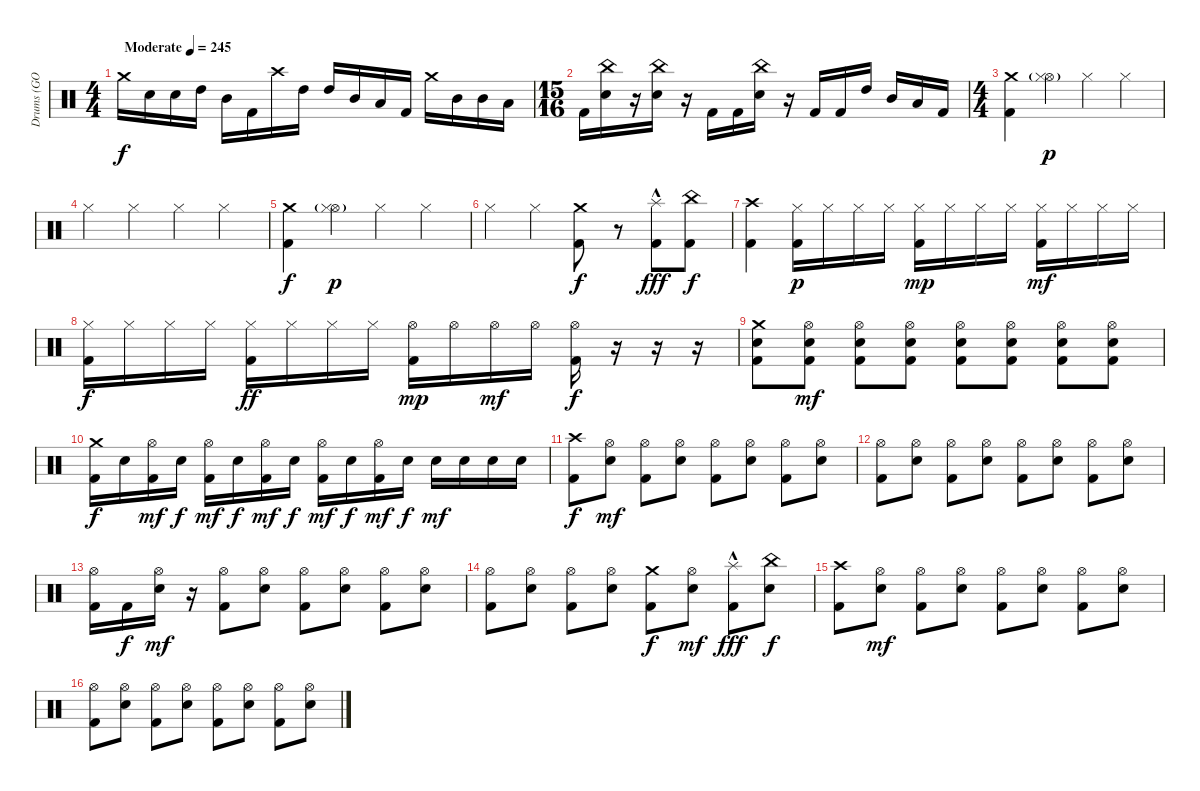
\track ("Drums (GO DIRK)" "Drums (GO ") {instrument percussion}
\staff {score}
\articulation defaults
\ts (4 4)
\tempo (245 "Moderate")
\clef neutral
\ks c "Crash medium (hit)".16{dy f} "Electric Snare (hit)".16 "Electric Snare (hit)".16 "High Tom (hit)".16 "Mid Tom (hit)".16 "Kick (hit) 2".16 "Crash high (hit)".16 "High Tom (hit)".16 "High Tom (hit)".16 "Mid Tom (hit)".16 "Low Tom (hit)".16 "Kick (hit) 2".16 "Crash medium (hit)".16 "Mid Tom (hit)".16 "Mid Tom (hit)".16 "Low Tom (hit)".16
|
\ts (15 16)
"Kick (hit) 2".16 ("China (hit)" "Electric Snare (hit)").16 r.16 ("China (hit)" "Electric Snare (hit)").16 r.16 "Kick (hit) 2".16 "Kick (hit) 2".16 ("China (hit)" "Electric Snare (hit)").16 r.16 "Kick (hit) 2".16 "Kick (hit) 2".16 "High Tom (hit)".16 "Mid Tom (hit)".16 "Low Tom (hit)".16 "Kick (hit) 2".16 |
\ts (4 4)
("Crash medium (hit)" "Kick (hit) 2").4 ("Hi-Hat (open)"{g} "Hi-Hat (closed)").4{dy p} "Hi-Hat (closed)".4 "Hi-Hat (closed)".4 |
"Hi-Hat (closed)".4 "Hi-Hat (closed)".4 "Hi-Hat (closed)".4 "Hi-Hat (closed)".4 |
("Crash medium (hit)" "Kick (hit) 2").4{dy f} ("Hi-Hat (open)"{g} "Hi-Hat (closed)").4{dy p} "Hi-Hat (closed)".4 "Hi-Hat (closed)".4 |
"Hi-Hat (closed)".4 "Hi-Hat (closed)".4 ("Crash medium (hit)" "Kick (hit) 2").8{dy f} r.8 ("Splash (hit)"{hac} "Kick (hit) 2").8{dy fff} ("China (hit)" "Kick (hit) 2").8{dy f} |
("Crash high (hit)" "Kick (hit) 2").4 ("Hi-Hat (closed)" "Kick (hit) 2").16{dy p} "Hi-Hat (closed)".16 "Hi-Hat (closed)".16 "Hi-Hat (closed)".16 ("Hi-Hat (closed)" "Kick (hit) 2").16{dy mp} "Hi-Hat (closed)".16 "Hi-Hat (closed)".16 "Hi-Hat (closed)".16 ("Hi-Hat (closed)" "Kick (hit) 2").16{dy mf} "Hi-Hat (closed)".16 "Hi-Hat (closed)".16 "Hi-Hat (closed)".16 |
("Hi-Hat (closed)" "Kick (hit) 2").16{dy f} "Hi-Hat (closed)".16 "Hi-Hat (closed)".16 "Hi-Hat (closed)".16 ("Hi-Hat (closed)" "Kick (hit) 2").16{dy ff} "Hi-Hat (closed)".16 "Hi-Hat (closed)".16 "Hi-Hat (closed)".16 ("Hi-Hat (open)" "Kick (hit) 2").16{dy mp} "Hi-Hat (open)".16 "Hi-Hat (open)".16{dy mf} "Hi-Hat (open)".16 ("Hi-Hat (open)" "Kick (hit) 2").16{dy f} r.16 r.16 r.16 |
("Crash medium (hit)" "Electric Snare (hit)" "Kick (hit) 2").8 ("Hi-Hat (open)" "Electric Snare (hit)" "Kick (hit) 2").8{dy mf} ("Hi-Hat (open)" "Electric Snare (hit)" "Kick (hit) 2").8 ("Hi-Hat (open)" "Electric Snare (hit)" "Kick (hit) 2").8 ("Hi-Hat (open)" "Electric Snare (hit)" "Kick (hit) 2").8 ("Hi-Hat (open)" "Electric Snare (hit)" "Kick (hit) 2").8 ("Hi-Hat (open)" "Electric Snare (hit)" "Kick (hit) 2").8 ("Hi-Hat (open)" "Electric Snare (hit)" "Kick (hit) 2").8 |
("Crash medium (hit)" "Kick (hit) 2").16{dy f} "Electric Snare (hit)".16 ("Hi-Hat (open)" "Kick (hit) 2").16{dy mf} "Electric Snare (hit)".16{dy f} ("Hi-Hat (open)" "Kick (hit) 2").16{dy mf} "Electric Snare (hit)".16{dy f} ("Hi-Hat (open)" "Kick (hit) 2").16{dy mf} "Electric Snare (hit)".16{dy f} ("Hi-Hat (open)" "Kick (hit) 2").16{dy mf} "Electric Snare (hit)".16{dy f} ("Hi-Hat (open)" "Kick (hit) 2").16{dy mf} "Electric Snare (hit)".16{dy f} "Electric Snare (hit)".16{dy mf} "Electric Snare (hit)".16 "Electric Snare (hit)".16 "Electric Snare (hit)".16 |
("Crash high (hit)" "Kick (hit) 2").8{dy f} ("Hi-Hat (open)" "Electric Snare (hit)").8{dy mf} ("Hi-Hat (open)" "Kick (hit) 2").8 ("Hi-Hat (open)" "Electric Snare (hit)").8 ("Hi-Hat (open)" "Kick (hit) 2").8 ("Hi-Hat (open)" "Electric Snare (hit)").8 ("Hi-Hat (open)" "Kick (hit) 2").8 ("Hi-Hat (open)" "Electric Snare (hit)").8 |
("Hi-Hat (open)" "Kick (hit) 2").8 ("Hi-Hat (open)" "Electric Snare (hit)").8 ("Hi-Hat (open)" "Kick (hit) 2").8 ("Hi-Hat (open)" "Electric Snare (hit)").8 ("Hi-Hat (open)" "Kick (hit) 2").8 ("Hi-Hat (open)" "Electric Snare (hit)").8 ("Hi-Hat (open)" "Kick (hit) 2").8 ("Hi-Hat (open)" "Electric Snare (hit)").8 |
("Hi-Hat (open)" "Kick (hit) 2").16 "Kick (hit) 2".16{dy f} ("Hi-Hat (open)" "Electric Snare (hit)").16{dy mf} r.16 ("Hi-Hat (open)" "Kick (hit) 2").8 ("Hi-Hat (open)" "Electric Snare (hit)").8 ("Hi-Hat (open)" "Kick (hit) 2").8 ("Hi-Hat (open)" "Electric Snare (hit)").8 ("Hi-Hat (open)" "Kick (hit) 2").8 ("Hi-Hat (open)" "Electric Snare (hit)").8 |
("Hi-Hat (open)" "Kick (hit) 2").8 ("Hi-Hat (open)" "Electric Snare (hit)").8 ("Hi-Hat (open)" "Kick (hit) 2").8 ("Hi-Hat (open)" "Electric Snare (hit)").8 ("Crash medium (hit)" "Kick (hit) 2").8{dy f} ("Hi-Hat (open)" "Electric Snare (hit)").8{dy mf} ("Splash (hit)"{hac} "Kick (hit) 2").8{dy fff} ("China (hit)" "Electric Snare (hit)").8{dy f} |
("Crash high (hit)" "Kick (hit) 2").8 ("Hi-Hat (open)" "Electric Snare (hit)").8{dy mf} ("Hi-Hat (open)" "Kick (hit) 2").8 ("Hi-Hat (open)" "Electric Snare (hit)").8 ("Hi-Hat (open)" "Kick (hit) 2").8 ("Hi-Hat (open)" "Electric Snare (hit)").8 ("Hi-Hat (open)" "Kick (hit) 2").8 ("Hi-Hat (open)" "Electric Snare (hit)").8 |
("Hi-Hat (open)" "Kick (hit) 2").8 ("Hi-Hat (open)" "Electric Snare (hit)").8 ("Hi-Hat (open)" "Kick (hit) 2").8 ("Hi-Hat (open)" "Electric Snare (hit)").8 ("Hi-Hat (open)" "Kick (hit) 2").8 ("Hi-Hat (open)" "Electric Snare (hit)").8 ("Hi-Hat (open)" "Kick (hit) 2").8 ("Hi-Hat (open)" "Electric Snare (hit)").8
